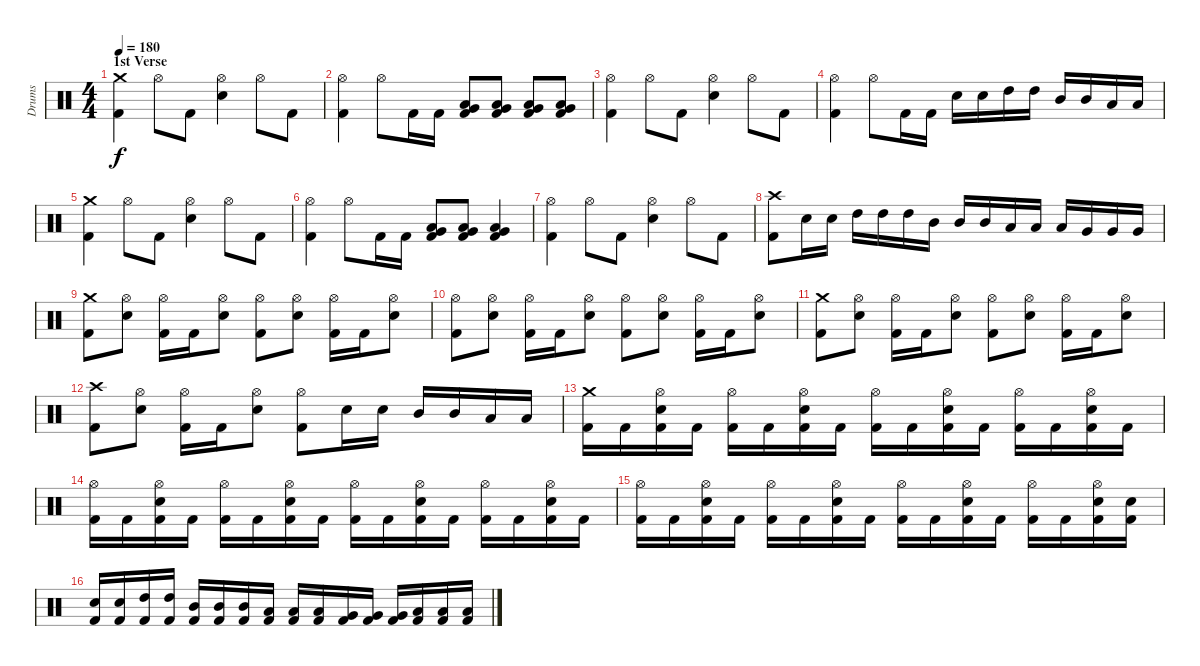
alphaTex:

\track ("Drums" "Drums") {instrument percussion}
\staff {score}
\articulation defaults
\ts (4 4)
\section ("" "1st Verse")
\tempo 180
\clef neutral
\ks c
("Kick (hit) 2" "Crash medium (hit)").4{dy f} "Hi-Hat (open)".8 "Kick (hit) 2".8 ("Electric Snare (hit)" "Hi-Hat (open)").4 "Hi-Hat (open)".8 "Kick (hit) 2".8 |
("Kick (hit) 2" "Hi-Hat (open)").4 "Hi-Hat (open)".8 "Kick (hit) 2".16 "Kick (hit) 2".16 ("Kick (hit) 2" "Low Tom (hit)" "Very Low Tom (hit)").8 ("Kick (hit) 2" "Low Tom (hit)" "Very Low Tom (hit)").8 ("Kick (hit) 2" "Low Tom (hit)" "Very Low Tom (hit)").8 ("Kick (hit) 2" "Low Tom (hit)" "Very Low Tom (hit)").8 |
("Kick (hit) 2" "Hi-Hat (open)").4 "Hi-Hat (open)".8 "Kick (hit) 2".8 ("Electric Snare (hit)" "Hi-Hat (open)").4 "Hi-Hat (open)".8 "Kick (hit) 2".8 |
("Kick (hit) 2" "Hi-Hat (open)").4 "Hi-Hat (open)".8 "Kick (hit) 2".16 "Kick (hit) 2".16 "Electric Snare (hit)".16 "Electric Snare (hit)".16 "High Tom (hit)".16 "High Tom (hit)".16 "Mid Tom (hit)".16 "Mid Tom (hit)".16 "Low Tom (hit)".16 "Low Tom (hit)".16 |
("Kick (hit) 2" "Crash medium (hit)").4 "Hi-Hat (open)".8 "Kick (hit) 2".8 ("Electric Snare (hit)" "Hi-Hat (open)").4 "Hi-Hat (open)".8 "Kick (hit) 2".8 |
("Kick (hit) 2" "Hi-Hat (open)").4 "Hi-Hat (open)".8 "Kick (hit) 2".16 "Kick (hit) 2".16 ("Kick (hit) 2" "Low Tom (hit)" "Very Low Tom (hit)").8 ("Kick (hit) 2" "Low Tom (hit)" "Very Low Tom (hit)").8 ("Kick (hit) 2" "Low Tom (hit)" "Very Low Tom (hit)").4 |
("Kick (hit) 2" "Hi-Hat (open)").4 "Hi-Hat (open)".8 "Kick (hit) 2".8 ("Electric Snare (hit)" "Hi-Hat (open)").4 "Hi-Hat (open)".8 "Kick (hit) 2".8 |
("Kick (hit) 2" "Crash high (hit)").8 "Electric Snare (hit)".16 "Electric Snare (hit)".16 "High Tom (hit)".16 "High Tom (hit)".16 "High Tom (hit)".16 "Mid Tom (hit)".16 "Mid Tom (hit)".16 "Mid Tom (hit)".16 "Low Tom (hit)".16 "Low Tom (hit)".16 "Low Tom (hit)".16 "Very Low Tom (hit)".16 "Very Low Tom (hit)".16 "Very Low Tom (hit)".16 |
("Kick (hit) 2" "Crash medium (hit)").8 ("Electric Snare (hit)" "Hi-Hat (open)").8 ("Kick (hit) 2" "Hi-Hat (open)").16 "Kick (hit) 2".16 ("Electric Snare (hit)" "Hi-Hat (open)").8 ("Kick (hit) 2" "Hi-Hat (open)").8 ("Electric Snare (hit)" "Hi-Hat (open)").8 ("Kick (hit) 2" "Hi-Hat (open)").16 "Kick (hit) 2".16 ("Electric Snare (hit)" "Hi-Hat (open)").8 |
("Kick (hit) 2" "Hi-Hat (open)").8 ("Electric Snare (hit)" "Hi-Hat (open)").8 ("Kick (hit) 2" "Hi-Hat (open)").16 "Kick (hit) 2".16 ("Electric Snare (hit)" "Hi-Hat (open)").8 ("Kick (hit) 2" "Hi-Hat (open)").8 ("Electric Snare (hit)" "Hi-Hat (open)").8 ("Kick (hit) 2" "Hi-Hat (open)").16 "Kick (hit) 2".16 ("Electric Snare (hit)" "Hi-Hat (open)").8 |
("Kick (hit) 2" "Crash medium (hit)").8 ("Electric Snare (hit)" "Hi-Hat (open)").8 ("Kick (hit) 2" "Hi-Hat (open)").16 "Kick (hit) 2".16 ("Electric Snare (hit)" "Hi-Hat (open)").8 ("Kick (hit) 2" "Hi-Hat (open)").8 ("Electric Snare (hit)" "Hi-Hat (open)").8 ("Kick (hit) 2" "Hi-Hat (open)").16 "Kick (hit) 2".16 ("Electric Snare (hit)" "Hi-Hat (open)").8 |
("Kick (hit) 2" "Crash high (hit)").8 ("Electric Snare (hit)" "Hi-Hat (open)").8 ("Kick (hit) 2" "Hi-Hat (open)").16 "Kick (hit) 2".16 ("Electric Snare (hit)" "Hi-Hat (open)").8 ("Kick (hit) 2" "Hi-Hat (open)").8 "Electric Snare (hit)".16 "Electric Snare (hit)".16 "Mid Tom (hit)".16 "Mid Tom (hit)".16 "Low Tom (hit)".16 "Low Tom (hit)".16 |
("Kick (hit) 2" "Crash medium (hit)").16 "Kick (hit) 2".16 ("Kick (hit) 2" "Electric Snare (hit)" "Hi-Hat (open)").16 "Kick (hit) 2".16 ("Kick (hit) 2" "Hi-Hat (open)").16 "Kick (hit) 2".16 ("Kick (hit) 2" "Electric Snare (hit)" "Hi-Hat (open)").16 "Kick (hit) 2".16 ("Kick (hit) 2" "Hi-Hat (open)").16 "Kick (hit) 2".16 ("Kick (hit) 2" "Electric Snare (hit)" "Hi-Hat (open)").16 "Kick (hit) 2".16 ("Kick (hit) 2" "Hi-Hat (open)").16 "Kick (hit) 2".16 ("Kick (hit) 2" "Electric Snare (hit)" "Hi-Hat (open)").16 "Kick (hit) 2".16 |
("Kick (hit) 2" "Hi-Hat (open)").16 "Kick (hit) 2".16 ("Kick (hit) 2" "Electric Snare (hit)" "Hi-Hat (open)").16 "Kick (hit) 2".16 ("Kick (hit) 2" "Hi-Hat (open)").16 "Kick (hit) 2".16 ("Kick (hit) 2" "Electric Snare (hit)" "Hi-Hat (open)").16 "Kick (hit) 2".16 ("Kick (hit) 2" "Hi-Hat (open)").16 "Kick (hit) 2".16 ("Kick (hit) 2" "Electric Snare (hit)" "Hi-Hat (open)").16 "Kick (hit) 2".16 ("Kick (hit) 2" "Hi-Hat (open)").16 "Kick (hit) 2".16 ("Kick (hit) 2" "Electric Snare (hit)" "Hi-Hat (open)").16 "Kick (hit) 2".16 |
("Kick (hit) 2" "Hi-Hat (open)").16 "Kick (hit) 2".16 ("Kick (hit) 2" "Electric Snare (hit)" "Hi-Hat (open)").16 "Kick (hit) 2".16 ("Kick (hit) 2" "Hi-Hat (open)").16 "Kick (hit) 2".16 ("Kick (hit) 2" "Electric Snare (hit)" "Hi-Hat (open)").16 "Kick (hit) 2".16 ("Kick (hit) 2" "Hi-Hat (open)").16 "Kick (hit) 2".16 ("Kick (hit) 2" "Electric Snare (hit)" "Hi-Hat (open)").16 "Kick (hit) 2".16 ("Kick (hit) 2" "Hi-Hat (open)").16 "Kick (hit) 2".16 ("Kick (hit) 2" "Electric Snare (hit)" "Hi-Hat (open)").16 ("Kick (hit) 2" "Electric Snare (hit)").16 |
("Kick (hit) 2" "Electric Snare (hit)").16 ("Kick (hit) 2" "Electric Snare (hit)").16 ("Kick (hit) 2" "High Tom (hit)").16 ("Kick (hit) 2" "High Tom (hit)").16 ("Kick (hit) 2" "Mid Tom (hit)").16 ("Kick (hit) 2" "Mid Tom (hit)").16 ("Kick (hit) 2" "Mid Tom (hit)").16 ("Kick (hit) 2" "Low Tom (hit)").16 ("Kick (hit) 2" "Low Tom (hit)").16 ("Kick (hit) 2" "Low Tom (hit)").16 ("Kick (hit) 2" "Very Low Tom (hit)").16 ("Kick (hit) 2" "Very Low Tom (hit)").16 ("Kick (hit) 2" "Very Low Tom (hit)").16 ("Kick (hit) 2" "Low Floor Tom (hit)").16 ("Kick (hit) 2" "Low Floor Tom (hit)").16 ("Kick (hit) 2" "Low Floor Tom (hit)").16
